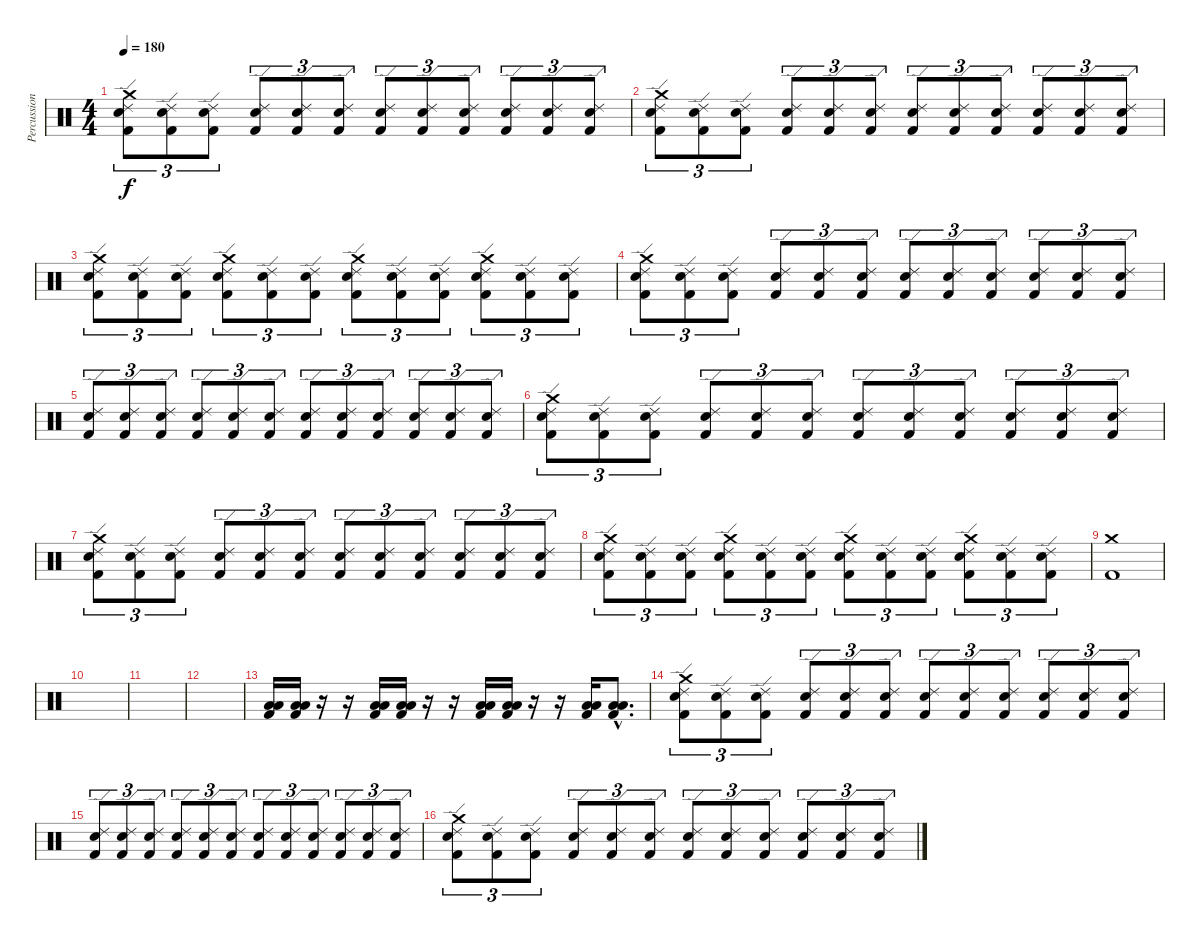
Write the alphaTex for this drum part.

\track ("Percussioni" "Percussion") {instrument percussion}
\staff {score}
\articulation defaults
\ts (4 4)
\tempo 180
\clef neutral
\ks c
("Crash medium (hit)" "Ride (edge) 2" "Snare (hit) 2" "Kick (hit) 2").8{tu (3 2) dy f} ("Ride (edge) 2" "Snare (hit) 2" "Kick (hit) 2").8{tu (3 2)} ("Ride (edge) 2" "Snare (hit) 2" "Kick (hit) 2").8{tu (3 2)} ("Ride (edge) 2" "Snare (hit) 2" "Kick (hit) 2").8{tu (3 2)} ("Ride (edge) 2" "Snare (hit) 2" "Kick (hit) 2").8{tu (3 2)} ("Ride (edge) 2" "Snare (hit) 2" "Kick (hit) 2").8{tu (3 2)} ("Ride (edge) 2" "Snare (hit) 2" "Kick (hit) 2").8{tu (3 2)} ("Ride (edge) 2" "Snare (hit) 2" "Kick (hit) 2").8{tu (3 2)} ("Ride (edge) 2" "Snare (hit) 2" "Kick (hit) 2").8{tu (3 2)} ("Ride (edge) 2" "Snare (hit) 2" "Kick (hit) 2").8{tu (3 2)} ("Ride (edge) 2" "Snare (hit) 2" "Kick (hit) 2").8{tu (3 2)} ("Ride (edge) 2" "Snare (hit) 2" "Kick (hit) 2").8{tu (3 2)} |
("Crash medium (hit)" "Ride (edge) 2" "Snare (hit) 2" "Kick (hit) 2").8{tu (3 2)} ("Ride (edge) 2" "Snare (hit) 2" "Kick (hit) 2").8{tu (3 2)} ("Ride (edge) 2" "Snare (hit) 2" "Kick (hit) 2").8{tu (3 2)} ("Ride (edge) 2" "Snare (hit) 2" "Kick (hit) 2").8{tu (3 2)} ("Ride (edge) 2" "Snare (hit) 2" "Kick (hit) 2").8{tu (3 2)} ("Ride (edge) 2" "Snare (hit) 2" "Kick (hit) 2").8{tu (3 2)} ("Ride (edge) 2" "Snare (hit) 2" "Kick (hit) 2").8{tu (3 2)} ("Ride (edge) 2" "Snare (hit) 2" "Kick (hit) 2").8{tu (3 2)} ("Ride (edge) 2" "Snare (hit) 2" "Kick (hit) 2").8{tu (3 2)} ("Ride (edge) 2" "Snare (hit) 2" "Kick (hit) 2").8{tu (3 2)} ("Ride (edge) 2" "Snare (hit) 2" "Kick (hit) 2").8{tu (3 2)} ("Ride (edge) 2" "Snare (hit) 2" "Kick (hit) 2").8{tu (3 2)} |
("Crash medium (hit)" "Ride (edge) 2" "Snare (hit) 2" "Kick (hit) 2").8{tu (3 2)} ("Ride (edge) 2" "Snare (hit) 2" "Kick (hit) 2").8{tu (3 2)} ("Ride (edge) 2" "Snare (hit) 2" "Kick (hit) 2").8{tu (3 2)} ("Crash medium (hit)" "Ride (edge) 2" "Snare (hit) 2" "Kick (hit) 2").8{tu (3 2)} ("Ride (edge) 2" "Snare (hit) 2" "Kick (hit) 2").8{tu (3 2)} ("Ride (edge) 2" "Snare (hit) 2" "Kick (hit) 2").8{tu (3 2)} ("Crash medium (hit)" "Ride (edge) 2" "Snare (hit) 2" "Kick (hit) 2").8{tu (3 2)} ("Ride (edge) 2" "Snare (hit) 2" "Kick (hit) 2").8{tu (3 2)} ("Ride (edge) 2" "Snare (hit) 2" "Kick (hit) 2").8{tu (3 2)} ("Crash medium (hit)" "Ride (edge) 2" "Snare (hit) 2" "Kick (hit) 2").8{tu (3 2)} ("Ride (edge) 2" "Snare (hit) 2" "Kick (hit) 2").8{tu (3 2)} ("Ride (edge) 2" "Snare (hit) 2" "Kick (hit) 2").8{tu (3 2)} |
("Crash medium (hit)" "Ride (edge) 2" "Snare (hit) 2" "Kick (hit) 2").8{tu (3 2)} ("Ride (edge) 2" "Snare (hit) 2" "Kick (hit) 2").8{tu (3 2)} ("Ride (edge) 2" "Snare (hit) 2" "Kick (hit) 2").8{tu (3 2)} ("Ride (edge) 2" "Snare (hit) 2" "Kick (hit) 2").8{tu (3 2)} ("Ride (edge) 2" "Snare (hit) 2" "Kick (hit) 2").8{tu (3 2)} ("Ride (edge) 2" "Snare (hit) 2" "Kick (hit) 2").8{tu (3 2)} ("Ride (edge) 2" "Snare (hit) 2" "Kick (hit) 2").8{tu (3 2)} ("Ride (edge) 2" "Snare (hit) 2" "Kick (hit) 2").8{tu (3 2)} ("Ride (edge) 2" "Snare (hit) 2" "Kick (hit) 2").8{tu (3 2)} ("Ride (edge) 2" "Snare (hit) 2" "Kick (hit) 2").8{tu (3 2)} ("Ride (edge) 2" "Snare (hit) 2" "Kick (hit) 2").8{tu (3 2)} ("Ride (edge) 2" "Snare (hit) 2" "Kick (hit) 2").8{tu (3 2)} |
("Ride (edge) 2" "Snare (hit) 2" "Kick (hit) 2").8{tu (3 2)} ("Ride (edge) 2" "Snare (hit) 2" "Kick (hit) 2").8{tu (3 2)} ("Ride (edge) 2" "Snare (hit) 2" "Kick (hit) 2").8{tu (3 2)} ("Ride (edge) 2" "Snare (hit) 2" "Kick (hit) 2").8{tu (3 2)} ("Ride (edge) 2" "Snare (hit) 2" "Kick (hit) 2").8{tu (3 2)} ("Ride (edge) 2" "Snare (hit) 2" "Kick (hit) 2").8{tu (3 2)} ("Ride (edge) 2" "Snare (hit) 2" "Kick (hit) 2").8{tu (3 2)} ("Ride (edge) 2" "Snare (hit) 2" "Kick (hit) 2").8{tu (3 2)} ("Ride (edge) 2" "Snare (hit) 2" "Kick (hit) 2").8{tu (3 2)} ("Ride (edge) 2" "Snare (hit) 2" "Kick (hit) 2").8{tu (3 2)} ("Ride (edge) 2" "Snare (hit) 2" "Kick (hit) 2").8{tu (3 2)} ("Ride (edge) 2" "Snare (hit) 2" "Kick (hit) 2").8{tu (3 2)} |
("Crash medium (hit)" "Ride (edge) 2" "Snare (hit) 2" "Kick (hit) 2").8{tu (3 2)} ("Ride (edge) 2" "Snare (hit) 2" "Kick (hit) 2").8{tu (3 2)} ("Ride (edge) 2" "Snare (hit) 2" "Kick (hit) 2").8{tu (3 2)} ("Ride (edge) 2" "Snare (hit) 2" "Kick (hit) 2").8{tu (3 2)} ("Ride (edge) 2" "Snare (hit) 2" "Kick (hit) 2").8{tu (3 2)} ("Ride (edge) 2" "Snare (hit) 2" "Kick (hit) 2").8{tu (3 2)} ("Ride (edge) 2" "Snare (hit) 2" "Kick (hit) 2").8{tu (3 2)} ("Ride (edge) 2" "Snare (hit) 2" "Kick (hit) 2").8{tu (3 2)} ("Ride (edge) 2" "Snare (hit) 2" "Kick (hit) 2").8{tu (3 2)} ("Ride (edge) 2" "Snare (hit) 2" "Kick (hit) 2").8{tu (3 2)} ("Ride (edge) 2" "Snare (hit) 2" "Kick (hit) 2").8{tu (3 2)} ("Ride (edge) 2" "Snare (hit) 2" "Kick (hit) 2").8{tu (3 2)} |
("Crash medium (hit)" "Ride (edge) 2" "Snare (hit) 2" "Kick (hit) 2").8{tu (3 2)} ("Ride (edge) 2" "Snare (hit) 2" "Kick (hit) 2").8{tu (3 2)} ("Ride (edge) 2" "Snare (hit) 2" "Kick (hit) 2").8{tu (3 2)} ("Ride (edge) 2" "Snare (hit) 2" "Kick (hit) 2").8{tu (3 2)} ("Ride (edge) 2" "Snare (hit) 2" "Kick (hit) 2").8{tu (3 2)} ("Ride (edge) 2" "Snare (hit) 2" "Kick (hit) 2").8{tu (3 2)} ("Ride (edge) 2" "Snare (hit) 2" "Kick (hit) 2").8{tu (3 2)} ("Ride (edge) 2" "Snare (hit) 2" "Kick (hit) 2").8{tu (3 2)} ("Ride (edge) 2" "Snare (hit) 2" "Kick (hit) 2").8{tu (3 2)} ("Ride (edge) 2" "Snare (hit) 2" "Kick (hit) 2").8{tu (3 2)} ("Ride (edge) 2" "Snare (hit) 2" "Kick (hit) 2").8{tu (3 2)} ("Ride (edge) 2" "Snare (hit) 2" "Kick (hit) 2").8{tu (3 2)} |
("Crash medium (hit)" "Ride (edge) 2" "Snare (hit) 2" "Kick (hit) 2").8{tu (3 2)} ("Ride (edge) 2" "Snare (hit) 2" "Kick (hit) 2").8{tu (3 2)} ("Ride (edge) 2" "Snare (hit) 2" "Kick (hit) 2").8{tu (3 2)} ("Crash medium (hit)" "Ride (edge) 2" "Snare (hit) 2" "Kick (hit) 2").8{tu (3 2)} ("Ride (edge) 2" "Snare (hit) 2" "Kick (hit) 2").8{tu (3 2)} ("Ride (edge) 2" "Snare (hit) 2" "Kick (hit) 2").8{tu (3 2)} ("Crash medium (hit)" "Ride (edge) 2" "Snare (hit) 2" "Kick (hit) 2").8{tu (3 2)} ("Ride (edge) 2" "Snare (hit) 2" "Kick (hit) 2").8{tu (3 2)} ("Ride (edge) 2" "Snare (hit) 2" "Kick (hit) 2").8{tu (3 2)} ("Crash medium (hit)" "Ride (edge) 2" "Snare (hit) 2" "Kick (hit) 2").8{tu (3 2)} ("Ride (edge) 2" "Snare (hit) 2" "Kick (hit) 2").8{tu (3 2)} ("Ride (edge) 2" "Snare (hit) 2" "Kick (hit) 2").8{tu (3 2)} |
("Crash medium (hit)" "Kick (hit) 2").1 |
|
|
|
("Low Tom (hit)" "Low Floor Tom (hit)" "Kick (hit) 2").16 ("Low Tom (hit)" "Low Floor Tom (hit)" "Kick (hit) 2").16 r.16 r.16 ("Low Tom (hit)" "Low Floor Tom (hit)" "Kick (hit) 2").16 ("Low Tom (hit)" "Low Floor Tom (hit)" "Kick (hit) 2").16 r.16 r.16 ("Low Tom (hit)" "Low Floor Tom (hit)" "Kick (hit) 2").16 ("Low Tom (hit)" "Low Floor Tom (hit)" "Kick (hit) 2").16 r.16 r.16 ("Low Tom (hit)" "Low Floor Tom (hit)" "Kick (hit) 2").16 ("Low Tom (hit)"{hac} "Low Floor Tom (hit)"{hac} "Kick (hit) 2"{hac}).8{d} |
("Crash medium (hit)" "Ride (edge) 2" "Snare (hit) 2" "Kick (hit) 2").8{tu (3 2)} ("Ride (edge) 2" "Snare (hit) 2" "Kick (hit) 2").8{tu (3 2)} ("Ride (edge) 2" "Snare (hit) 2" "Kick (hit) 2").8{tu (3 2)} ("Ride (edge) 2" "Snare (hit) 2" "Kick (hit) 2").8{tu (3 2)} ("Ride (edge) 2" "Snare (hit) 2" "Kick (hit) 2").8{tu (3 2)} ("Ride (edge) 2" "Snare (hit) 2" "Kick (hit) 2").8{tu (3 2)} ("Ride (edge) 2" "Snare (hit) 2" "Kick (hit) 2").8{tu (3 2)} ("Ride (edge) 2" "Snare (hit) 2" "Kick (hit) 2").8{tu (3 2)} ("Ride (edge) 2" "Snare (hit) 2" "Kick (hit) 2").8{tu (3 2)} ("Ride (edge) 2" "Snare (hit) 2" "Kick (hit) 2").8{tu (3 2)} ("Ride (edge) 2" "Snare (hit) 2" "Kick (hit) 2").8{tu (3 2)} ("Ride (edge) 2" "Snare (hit) 2" "Kick (hit) 2").8{tu (3 2)} |
("Ride (edge) 2" "Snare (hit) 2" "Kick (hit) 2").8{tu (3 2)} ("Ride (edge) 2" "Snare (hit) 2" "Kick (hit) 2").8{tu (3 2)} ("Ride (edge) 2" "Snare (hit) 2" "Kick (hit) 2").8{tu (3 2)} ("Ride (edge) 2" "Snare (hit) 2" "Kick (hit) 2").8{tu (3 2)} ("Ride (edge) 2" "Snare (hit) 2" "Kick (hit) 2").8{tu (3 2)} ("Ride (edge) 2" "Snare (hit) 2" "Kick (hit) 2").8{tu (3 2)} ("Ride (edge) 2" "Snare (hit) 2" "Kick (hit) 2").8{tu (3 2)} ("Ride (edge) 2" "Snare (hit) 2" "Kick (hit) 2").8{tu (3 2)} ("Ride (edge) 2" "Snare (hit) 2" "Kick (hit) 2").8{tu (3 2)} ("Ride (edge) 2" "Snare (hit) 2" "Kick (hit) 2").8{tu (3 2)} ("Ride (edge) 2" "Snare (hit) 2" "Kick (hit) 2").8{tu (3 2)} ("Ride (edge) 2" "Snare (hit) 2" "Kick (hit) 2").8{tu (3 2)} |
("Crash medium (hit)" "Ride (edge) 2" "Snare (hit) 2" "Kick (hit) 2").8{tu (3 2)} ("Ride (edge) 2" "Snare (hit) 2" "Kick (hit) 2").8{tu (3 2)} ("Ride (edge) 2" "Snare (hit) 2" "Kick (hit) 2").8{tu (3 2)} ("Ride (edge) 2" "Snare (hit) 2" "Kick (hit) 2").8{tu (3 2)} ("Ride (edge) 2" "Snare (hit) 2" "Kick (hit) 2").8{tu (3 2)} ("Ride (edge) 2" "Snare (hit) 2" "Kick (hit) 2").8{tu (3 2)} ("Ride (edge) 2" "Snare (hit) 2" "Kick (hit) 2").8{tu (3 2)} ("Ride (edge) 2" "Snare (hit) 2" "Kick (hit) 2").8{tu (3 2)} ("Ride (edge) 2" "Snare (hit) 2" "Kick (hit) 2").8{tu (3 2)} ("Ride (edge) 2" "Snare (hit) 2" "Kick (hit) 2").8{tu (3 2)} ("Ride (edge) 2" "Snare (hit) 2" "Kick (hit) 2").8{tu (3 2)} ("Ride (edge) 2" "Snare (hit) 2" "Kick (hit) 2").8{tu (3 2)}
